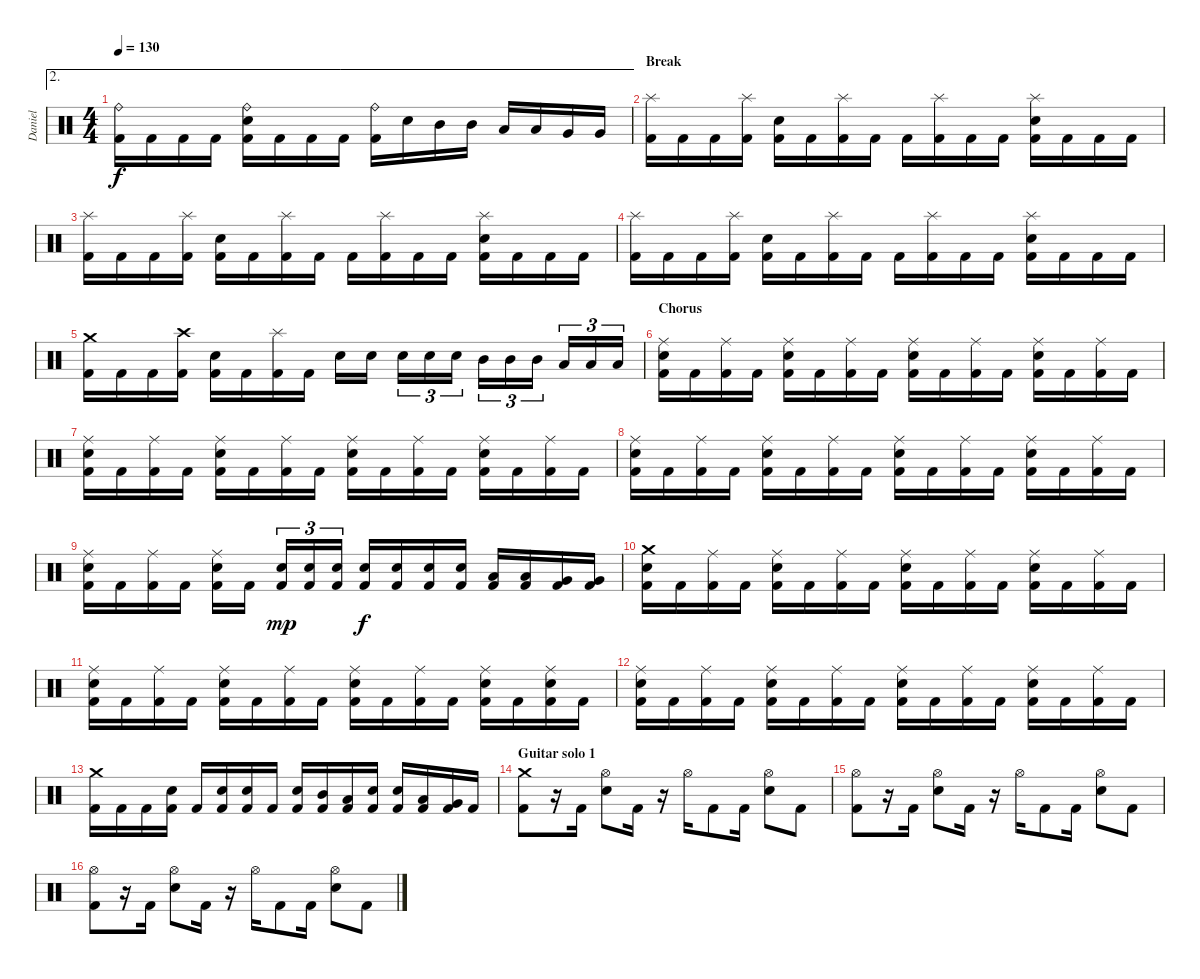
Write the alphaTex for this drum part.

\track ("Daniel" "Daniel") {instrument percussion}
\staff {score}
\articulation defaults
\ae 2
\ts (4 4)
\tempo 130
\clef neutral
\ks c
("Ride (bell)" "Kick (hit) 2").16{dy f} "Kick (hit) 2".16 "Kick (hit) 2".16 "Kick (hit) 2".16 ("Ride (bell)" "Electric Snare (hit)" "Kick (hit) 2").16 "Kick (hit) 2".16 "Kick (hit) 2".16 "Kick (hit) 2".16 ("Ride (bell)" "Kick (hit) 2").16 "Electric Snare (hit)".16 "Mid Tom (hit)".16 "Mid Tom (hit)".16 "Low Tom (hit)".16 "Low Tom (hit)".16 "Very Low Tom (hit)".16 "Very Low Tom (hit)".16 |
\section ("" "Break")
("Splash (hit)" "Kick (hit) 2").16 "Kick (hit) 2".16 "Kick (hit) 2".16 ("Splash (hit)" "Kick (hit) 2").16 ("Electric Snare (hit)" "Kick (hit) 2").16 "Kick (hit) 2".16 ("Splash (hit)" "Kick (hit) 2").16 "Kick (hit) 2".16 "Kick (hit) 2".16 ("Splash (hit)" "Kick (hit) 2").16 "Kick (hit) 2".16 "Kick (hit) 2".16 ("Splash (hit)" "Electric Snare (hit)" "Kick (hit) 2").16 "Kick (hit) 2".16 "Kick (hit) 2".16 "Kick (hit) 2".16 |
("Splash (hit)" "Kick (hit) 2").16 "Kick (hit) 2".16 "Kick (hit) 2".16 ("Splash (hit)" "Kick (hit) 2").16 ("Electric Snare (hit)" "Kick (hit) 2").16 "Kick (hit) 2".16 ("Splash (hit)" "Kick (hit) 2").16 "Kick (hit) 2".16 "Kick (hit) 2".16 ("Splash (hit)" "Kick (hit) 2").16 "Kick (hit) 2".16 "Kick (hit) 2".16 ("Splash (hit)" "Electric Snare (hit)" "Kick (hit) 2").16 "Kick (hit) 2".16 "Kick (hit) 2".16 "Kick (hit) 2".16 |
("Splash (hit)" "Kick (hit) 2").16 "Kick (hit) 2".16 "Kick (hit) 2".16 ("Splash (hit)" "Kick (hit) 2").16 ("Electric Snare (hit)" "Kick (hit) 2").16 "Kick (hit) 2".16 ("Splash (hit)" "Kick (hit) 2").16 "Kick (hit) 2".16 "Kick (hit) 2".16 ("Splash (hit)" "Kick (hit) 2").16 "Kick (hit) 2".16 "Kick (hit) 2".16 ("Splash (hit)" "Electric Snare (hit)" "Kick (hit) 2").16 "Kick (hit) 2".16 "Kick (hit) 2".16 "Kick (hit) 2".16 |
("Crash medium (hit)" "Kick (hit) 2").16 "Kick (hit) 2".16 "Kick (hit) 2".16 ("Crash high (hit)" "Kick (hit) 2").16 ("Electric Snare (hit)" "Kick (hit) 2").16 "Kick (hit) 2".16 ("Splash (hit)" "Kick (hit) 2").16 "Kick (hit) 2".16 "Electric Snare (hit)".16 "Electric Snare (hit)".16 "Electric Snare (hit)".16{tu (3 2)} "Electric Snare (hit)".16{tu (3 2)} "Electric Snare (hit)".16{tu (3 2)} "Mid Tom (hit)".16{tu (3 2)} "Mid Tom (hit)".16{tu (3 2)} "Mid Tom (hit)".16{tu (3 2)} "Low Tom (hit)".16{tu (3 2)} "Low Tom (hit)".16{tu (3 2)} "Low Tom (hit)".16{tu (3 2)} |
\section ("" "Chorus")
("Ride (middle)" "Electric Snare (hit)" "Kick (hit) 2").16 "Kick (hit) 2".16 ("Ride (middle)" "Kick (hit) 2").16 "Kick (hit) 2".16 ("Ride (middle)" "Electric Snare (hit)" "Kick (hit) 2").16 "Kick (hit) 2".16 ("Ride (middle)" "Kick (hit) 2").16 "Kick (hit) 2".16 ("Ride (middle)" "Electric Snare (hit)" "Kick (hit) 2").16 "Kick (hit) 2".16 ("Ride (middle)" "Kick (hit) 2").16 "Kick (hit) 2".16 ("Ride (middle)" "Electric Snare (hit)" "Kick (hit) 2").16 "Kick (hit) 2".16 ("Ride (middle)" "Kick (hit) 2").16 "Kick (hit) 2".16 |
("Ride (middle)" "Electric Snare (hit)" "Kick (hit) 2").16 "Kick (hit) 2".16 ("Ride (middle)" "Kick (hit) 2").16 "Kick (hit) 2".16 ("Ride (middle)" "Electric Snare (hit)" "Kick (hit) 2").16 "Kick (hit) 2".16 ("Ride (middle)" "Kick (hit) 2").16 "Kick (hit) 2".16 ("Ride (middle)" "Electric Snare (hit)" "Kick (hit) 2").16 "Kick (hit) 2".16 ("Ride (middle)" "Kick (hit) 2").16 "Kick (hit) 2".16 ("Ride (middle)" "Electric Snare (hit)" "Kick (hit) 2").16 "Kick (hit) 2".16 ("Ride (middle)" "Kick (hit) 2").16 "Kick (hit) 2".16 |
("Ride (middle)" "Electric Snare (hit)" "Kick (hit) 2").16 "Kick (hit) 2".16 ("Ride (middle)" "Kick (hit) 2").16 "Kick (hit) 2".16 ("Ride (middle)" "Electric Snare (hit)" "Kick (hit) 2").16 "Kick (hit) 2".16 ("Ride (middle)" "Kick (hit) 2").16 "Kick (hit) 2".16 ("Ride (middle)" "Electric Snare (hit)" "Kick (hit) 2").16 "Kick (hit) 2".16 ("Ride (middle)" "Kick (hit) 2").16 "Kick (hit) 2".16 ("Ride (middle)" "Electric Snare (hit)" "Kick (hit) 2").16 "Kick (hit) 2".16 ("Ride (middle)" "Kick (hit) 2").16 "Kick (hit) 2".16 |
("Ride (middle)" "Electric Snare (hit)" "Kick (hit) 2").16 "Kick (hit) 2".16 ("Ride (middle)" "Kick (hit) 2").16 "Kick (hit) 2".16 ("Ride (middle)" "Electric Snare (hit)" "Kick (hit) 2").16 "Kick (hit) 2".16 ("Electric Snare (hit)" "Kick (hit) 2").16{tu (3 2) dy mp} ("Electric Snare (hit)" "Kick (hit) 2").16{tu (3 2)} ("Electric Snare (hit)" "Kick (hit) 2").16{tu (3 2)} ("Electric Snare (hit)" "Kick (hit) 2").16{dy f} ("Electric Snare (hit)" "Kick (hit) 2").16 ("Electric Snare (hit)" "Kick (hit) 2").16 ("Electric Snare (hit)" "Kick (hit) 2").16 ("Low Tom (hit)" "Kick (hit) 2").16 ("Low Tom (hit)" "Kick (hit) 2").16 ("Very Low Tom (hit)" "Kick (hit) 2").16 ("Very Low Tom (hit)" "Kick (hit) 2").16 |
("Crash medium (hit)" "Electric Snare (hit)" "Kick (hit) 2").16 "Kick (hit) 2".16 ("Ride (middle)" "Kick (hit) 2").16 "Kick (hit) 2".16 ("Ride (middle)" "Electric Snare (hit)" "Kick (hit) 2").16 "Kick (hit) 2".16 ("Ride (middle)" "Kick (hit) 2").16 "Kick (hit) 2".16 ("Ride (middle)" "Electric Snare (hit)" "Kick (hit) 2").16 "Kick (hit) 2".16 ("Ride (middle)" "Kick (hit) 2").16 "Kick (hit) 2".16 ("Ride (middle)" "Electric Snare (hit)" "Kick (hit) 2").16 "Kick (hit) 2".16 ("Ride (middle)" "Kick (hit) 2").16 "Kick (hit) 2".16 |
("Ride (middle)" "Electric Snare (hit)" "Kick (hit) 2").16 "Kick (hit) 2".16 ("Ride (middle)" "Kick (hit) 2").16 "Kick (hit) 2".16 ("Ride (middle)" "Electric Snare (hit)" "Kick (hit) 2").16 "Kick (hit) 2".16 ("Ride (middle)" "Kick (hit) 2").16 "Kick (hit) 2".16 ("Ride (middle)" "Electric Snare (hit)" "Kick (hit) 2").16 "Kick (hit) 2".16 ("Ride (middle)" "Kick (hit) 2").16 "Kick (hit) 2".16 ("Ride (middle)" "Electric Snare (hit)" "Kick (hit) 2").16 "Kick (hit) 2".16 ("Ride (middle)" "Electric Snare (hit)" "Kick (hit) 2").16 "Kick (hit) 2".16 |
("Ride (middle)" "Electric Snare (hit)" "Kick (hit) 2").16 "Kick (hit) 2".16 ("Ride (middle)" "Kick (hit) 2").16 "Kick (hit) 2".16 ("Ride (middle)" "Electric Snare (hit)" "Kick (hit) 2").16 "Kick (hit) 2".16 ("Ride (middle)" "Kick (hit) 2").16 "Kick (hit) 2".16 ("Ride (middle)" "Electric Snare (hit)" "Kick (hit) 2").16 "Kick (hit) 2".16 ("Ride (middle)" "Kick (hit) 2").16 "Kick (hit) 2".16 ("Ride (middle)" "Electric Snare (hit)" "Kick (hit) 2").16 "Kick (hit) 2".16 ("Ride (middle)" "Kick (hit) 2").16 "Kick (hit) 2".16 |
("Crash medium (hit)" "Kick (hit) 2").16 "Kick (hit) 2".16 "Kick (hit) 2".16 ("Electric Snare (hit)" "Kick (hit) 2").16 "Kick (hit) 2".16 ("Electric Snare (hit)" "Kick (hit) 2").16 ("Electric Snare (hit)" "Kick (hit) 2").16 "Kick (hit) 2".16 ("Electric Snare (hit)" "Kick (hit) 2").16 ("Mid Tom (hit)" "Kick (hit) 2").16 ("Low Tom (hit)" "Kick (hit) 2").16 ("Electric Snare (hit)" "Kick (hit) 2").16 ("Electric Snare (hit)" "Kick (hit) 2").16 ("Low Tom (hit)" "Kick (hit) 2").16 ("Very Low Tom (hit)" "Kick (hit) 2").16 "Kick (hit) 2".16 |
\section ("" "Guitar solo 1")
("Crash medium (hit)" "Kick (hit) 2").8 r.16 "Kick (hit) 2".16 ("Hi-Hat (open)" "Electric Snare (hit)").8 "Kick (hit) 2".16 r.16 "Hi-Hat (open)".16 "Kick (hit) 2".8 "Kick (hit) 2".16 ("Hi-Hat (open)" "Electric Snare (hit)").8 "Kick (hit) 2".8 |
("Hi-Hat (open)" "Kick (hit) 2").8 r.16 "Kick (hit) 2".16 ("Hi-Hat (open)" "Electric Snare (hit)").8 "Kick (hit) 2".16 r.16 "Hi-Hat (open)".16 "Kick (hit) 2".8 "Kick (hit) 2".16 ("Hi-Hat (open)" "Electric Snare (hit)").8 "Kick (hit) 2".8 |
("Hi-Hat (open)" "Kick (hit) 2").8 r.16 "Kick (hit) 2".16 ("Hi-Hat (open)" "Electric Snare (hit)").8 "Kick (hit) 2".16 r.16 "Hi-Hat (open)".16 "Kick (hit) 2".8 "Kick (hit) 2".16 ("Hi-Hat (open)" "Electric Snare (hit)").8 "Kick (hit) 2".8
